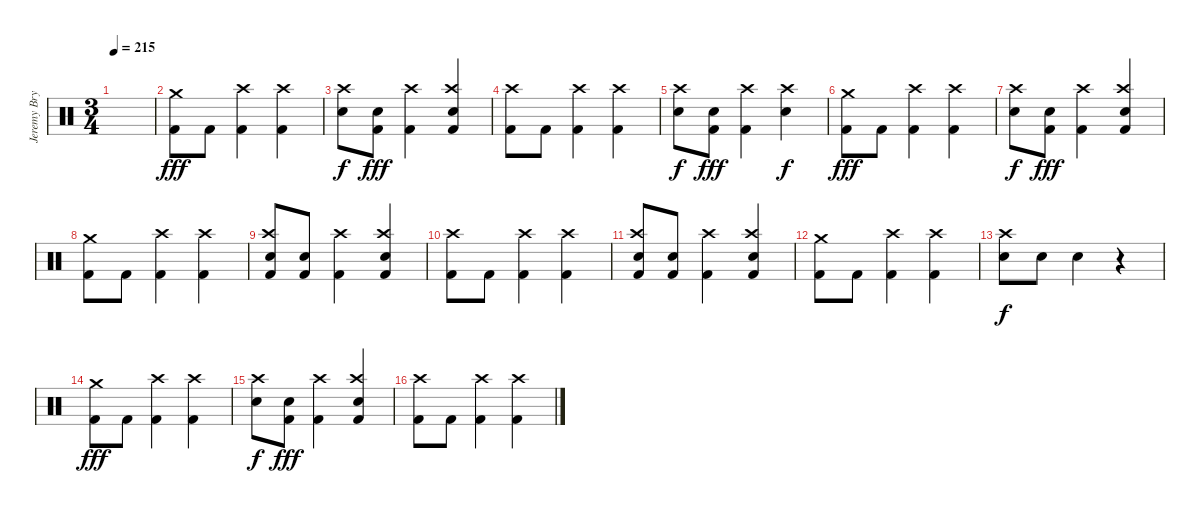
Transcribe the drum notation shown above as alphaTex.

\track ("Jeremy Bryan - Drums" "Jeremy Bry") {instrument percussion}
\staff {score}
\articulation defaults
\ts (3 4)
\tempo 215
\clef neutral
\ks c
|
("Crash medium (hit)" "Kick (hit) 2").8{dy fff volume 11} "Kick (hit) 2".8 ("Crash high (hit)" "Kick (hit) 2").4 ("Crash high (hit)" "Kick (hit) 2").4 |
("Crash high (hit)" "Electric Snare (hit)").8{dy f} ("Electric Snare (hit)" "Kick (hit) 2").8{dy fff} ("Crash high (hit)" "Kick (hit) 2").4 ("Crash high (hit)" "Electric Snare (hit)" "Kick (hit) 2").4 |
("Crash high (hit)" "Kick (hit) 2").8 "Kick (hit) 2".8 ("Crash high (hit)" "Kick (hit) 2").4 ("Crash high (hit)" "Kick (hit) 2").4 |
("Crash high (hit)" "Electric Snare (hit)").8{dy f} ("Electric Snare (hit)" "Kick (hit) 2").8{dy fff} ("Crash high (hit)" "Kick (hit) 2").4 ("Crash high (hit)" "Electric Snare (hit)").4{dy f} |
("Crash medium (hit)" "Kick (hit) 2").8{dy fff} "Kick (hit) 2".8 ("Crash high (hit)" "Kick (hit) 2").4 ("Crash high (hit)" "Kick (hit) 2").4 |
("Crash high (hit)" "Electric Snare (hit)").8{dy f} ("Electric Snare (hit)" "Kick (hit) 2").8{dy fff} ("Crash high (hit)" "Kick (hit) 2").4 ("Crash high (hit)" "Electric Snare (hit)" "Kick (hit) 2").4 |
("Crash medium (hit)" "Kick (hit) 2").8 "Kick (hit) 2".8 ("Crash high (hit)" "Kick (hit) 2").4 ("Crash high (hit)" "Kick (hit) 2").4 |
("Crash high (hit)" "Electric Snare (hit)" "Kick (hit) 2").8 ("Electric Snare (hit)" "Kick (hit) 2").8 ("Crash high (hit)" "Kick (hit) 2").4 ("Crash high (hit)" "Electric Snare (hit)" "Kick (hit) 2").4 |
("Crash high (hit)" "Kick (hit) 2").8 "Kick (hit) 2".8 ("Crash high (hit)" "Kick (hit) 2").4 ("Crash high (hit)" "Kick (hit) 2").4 |
("Crash high (hit)" "Electric Snare (hit)" "Kick (hit) 2").8 ("Electric Snare (hit)" "Kick (hit) 2").8 ("Crash high (hit)" "Kick (hit) 2").4 ("Crash high (hit)" "Electric Snare (hit)" "Kick (hit) 2").4 |
("Crash medium (hit)" "Kick (hit) 2").8 "Kick (hit) 2".8 ("Crash high (hit)" "Kick (hit) 2").4 ("Crash high (hit)" "Kick (hit) 2").4 |
("Crash high (hit)" "Electric Snare (hit)").8{dy f} "Electric Snare (hit)".8 "Electric Snare (hit)".4 r.4 |
("Crash medium (hit)" "Kick (hit) 2").8{dy fff volume 11} "Kick (hit) 2".8 ("Crash high (hit)" "Kick (hit) 2").4 ("Crash high (hit)" "Kick (hit) 2").4 |
("Crash high (hit)" "Electric Snare (hit)").8{dy f} ("Electric Snare (hit)" "Kick (hit) 2").8{dy fff} ("Crash high (hit)" "Kick (hit) 2").4 ("Crash high (hit)" "Electric Snare (hit)" "Kick (hit) 2").4 |
("Crash high (hit)" "Kick (hit) 2").8 "Kick (hit) 2".8 ("Crash high (hit)" "Kick (hit) 2").4 ("Crash high (hit)" "Kick (hit) 2").4
